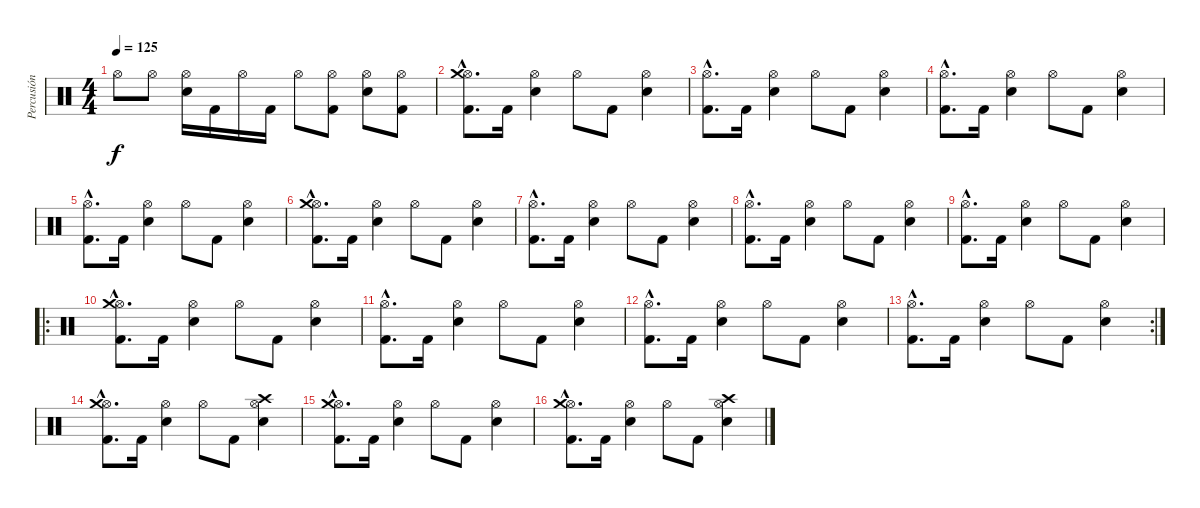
\track ("Percusión" "Percusión") {instrument percussion}
\staff {score}
\articulation defaults
\ts (4 4)
\tempo 125
\clef neutral
\ks c "Hi-Hat (open)".8{dy f} "Hi-Hat (open)".8
("Hi-Hat (open)" "Electric Snare (hit)").16 "Kick (hit) 2".16 "Hi-Hat (open)".16 "Kick (hit) 2".16 "Hi-Hat (open)".8 ("Hi-Hat (open)" "Kick (hit) 2").8 ("Hi-Hat (open)" "Electric Snare (hit)").8 ("Hi-Hat (open)" "Kick (hit) 2").8 |
("Hi-Hat (open)"{hac} "Kick (hit) 2"{hac} "Crash medium (hit)"{hac}).8{d} "Kick (hit) 2".16 ("Hi-Hat (open)" "Electric Snare (hit)").4 "Hi-Hat (open)".8 "Kick (hit) 2".8 ("Hi-Hat (open)" "Electric Snare (hit)").4 |
("Hi-Hat (open)"{hac} "Kick (hit) 2"{hac}).8{d} "Kick (hit) 2".16 ("Hi-Hat (open)" "Electric Snare (hit)").4 "Hi-Hat (open)".8 "Kick (hit) 2".8 ("Hi-Hat (open)" "Electric Snare (hit)").4 |
("Hi-Hat (open)"{hac} "Kick (hit) 2"{hac}).8{d} "Kick (hit) 2".16 ("Hi-Hat (open)" "Electric Snare (hit)").4 "Hi-Hat (open)".8 "Kick (hit) 2".8 ("Hi-Hat (open)" "Electric Snare (hit)").4 |
("Hi-Hat (open)"{hac} "Kick (hit) 2"{hac}).8{d} "Kick (hit) 2".16 ("Hi-Hat (open)" "Electric Snare (hit)").4 "Hi-Hat (open)".8 "Kick (hit) 2".8 ("Hi-Hat (open)" "Electric Snare (hit)").4 |
("Hi-Hat (open)"{hac} "Kick (hit) 2"{hac} "Crash medium (hit)"{hac}).8{d} "Kick (hit) 2".16 ("Hi-Hat (open)" "Electric Snare (hit)").4 "Hi-Hat (open)".8 "Kick (hit) 2".8 ("Hi-Hat (open)" "Electric Snare (hit)").4 |
("Hi-Hat (open)"{hac} "Kick (hit) 2"{hac}).8{d} "Kick (hit) 2".16 ("Hi-Hat (open)" "Electric Snare (hit)").4 "Hi-Hat (open)".8 "Kick (hit) 2".8 ("Hi-Hat (open)" "Electric Snare (hit)").4 |
("Hi-Hat (open)"{hac} "Kick (hit) 2"{hac}).8{d} "Kick (hit) 2".16 ("Hi-Hat (open)" "Electric Snare (hit)").4 "Hi-Hat (open)".8 "Kick (hit) 2".8 ("Hi-Hat (open)" "Electric Snare (hit)").4 |
("Hi-Hat (open)"{hac} "Kick (hit) 2"{hac}).8{d} "Kick (hit) 2".16 ("Hi-Hat (open)" "Electric Snare (hit)").4 "Hi-Hat (open)".8 "Kick (hit) 2".8 ("Hi-Hat (open)" "Electric Snare (hit)").4 |
\ro
("Hi-Hat (open)"{hac} "Kick (hit) 2"{hac} "Crash medium (hit)"{hac}).8{d} "Kick (hit) 2".16 ("Hi-Hat (open)" "Electric Snare (hit)").4 "Hi-Hat (open)".8 "Kick (hit) 2".8 ("Hi-Hat (open)" "Electric Snare (hit)").4 |
("Hi-Hat (open)"{hac} "Kick (hit) 2"{hac}).8{d} "Kick (hit) 2".16 ("Hi-Hat (open)" "Electric Snare (hit)").4 "Hi-Hat (open)".8 "Kick (hit) 2".8 ("Hi-Hat (open)" "Electric Snare (hit)").4 |
("Hi-Hat (open)"{hac} "Kick (hit) 2"{hac}).8{d} "Kick (hit) 2".16 ("Hi-Hat (open)" "Electric Snare (hit)").4 "Hi-Hat (open)".8 "Kick (hit) 2".8 ("Hi-Hat (open)" "Electric Snare (hit)").4 |
\rc 2
("Hi-Hat (open)"{hac} "Kick (hit) 2"{hac}).8{d} "Kick (hit) 2".16 ("Hi-Hat (open)" "Electric Snare (hit)").4 "Hi-Hat (open)".8 "Kick (hit) 2".8 ("Hi-Hat (open)" "Electric Snare (hit)").4 |
("Hi-Hat (open)"{hac} "Kick (hit) 2"{hac} "Crash medium (hit)"{hac}).8{d} "Kick (hit) 2".16 ("Hi-Hat (open)" "Electric Snare (hit)").4 "Hi-Hat (open)".8 "Kick (hit) 2".8 ("Hi-Hat (open)" "Electric Snare (hit)" "Crash high (hit)").4 |
("Hi-Hat (open)"{hac} "Kick (hit) 2"{hac} "Crash medium (hit)"{hac}).8{d} "Kick (hit) 2".16 ("Hi-Hat (open)" "Electric Snare (hit)").4 "Hi-Hat (open)".8 "Kick (hit) 2".8 ("Hi-Hat (open)" "Electric Snare (hit)").4 |
("Hi-Hat (open)"{hac} "Kick (hit) 2"{hac} "Crash medium (hit)"{hac}).8{d} "Kick (hit) 2".16 ("Hi-Hat (open)" "Electric Snare (hit)").4 "Hi-Hat (open)".8 "Kick (hit) 2".8 ("Hi-Hat (open)" "Electric Snare (hit)" "Crash high (hit)").4
